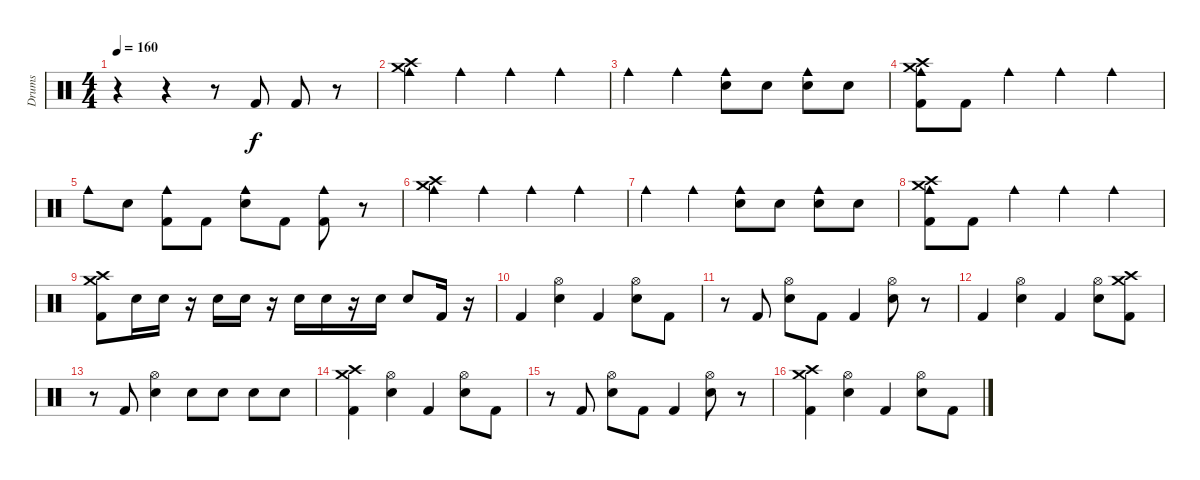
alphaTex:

\track ("Drums" "Drums") {instrument percussion}
\staff {score}
\articulation defaults
\ts (4 4)
\tempo 160
\clef neutral
\ks c
r.4{dy f} r.4 r.8 "Kick (hit) 2".8 "Kick (hit) 2".8 r.8 |
("Cowbell medium (hit)" "Crash high (hit)" "Crash medium (hit)").4 "Cowbell medium (hit)".4 "Cowbell medium (hit)".4 "Cowbell medium (hit)".4 |
"Cowbell medium (hit)".4 "Cowbell medium (hit)".4 ("Cowbell medium (hit)" "Snare (hit) 2").8 "Snare (hit) 2".8 ("Cowbell medium (hit)" "Snare (hit) 2").8 "Snare (hit) 2".8 |
("Cowbell medium (hit)" "Crash high (hit)" "Crash medium (hit)" "Kick (hit) 2").8 "Kick (hit) 2".8 "Cowbell medium (hit)".4 "Cowbell medium (hit)".4 "Cowbell medium (hit)".4 |
"Cowbell medium (hit)".8 "Snare (hit) 2".8 ("Cowbell medium (hit)" "Kick (hit) 2").8 "Kick (hit) 2".8 ("Cowbell medium (hit)" "Snare (hit) 2").8 "Kick (hit) 2".8 ("Cowbell medium (hit)" "Kick (hit) 2").8 r.8 |
("Cowbell medium (hit)" "Crash high (hit)" "Crash medium (hit)").4 "Cowbell medium (hit)".4 "Cowbell medium (hit)".4 "Cowbell medium (hit)".4 |
"Cowbell medium (hit)".4 "Cowbell medium (hit)".4 ("Cowbell medium (hit)" "Snare (hit) 2").8 "Snare (hit) 2".8 ("Cowbell medium (hit)" "Snare (hit) 2").8 "Snare (hit) 2".8 |
("Cowbell medium (hit)" "Crash high (hit)" "Crash medium (hit)" "Kick (hit) 2").8 "Kick (hit) 2".8 "Cowbell medium (hit)".4 "Cowbell medium (hit)".4 "Cowbell medium (hit)".4 |
("Crash medium (hit)" "Crash high (hit)" "Kick (hit) 2").8 "Snare (hit) 2".16 "Snare (hit) 2".16 r.16 "Snare (hit) 2".16 "Snare (hit) 2".16 r.16 "Snare (hit) 2".16 "Snare (hit) 2".16 r.16 "Snare (hit) 2".16 "Snare (hit) 2".8 "Kick (hit) 2".16 r.16 |
"Kick (hit) 2".4 ("Hi-Hat (open)" "Snare (hit) 2").4 "Kick (hit) 2".4 ("Hi-Hat (open)" "Snare (hit) 2").8 "Kick (hit) 2".8 |
r.8 "Kick (hit) 2".8 ("Hi-Hat (open)" "Snare (hit) 2").8 "Kick (hit) 2".8 "Kick (hit) 2".4 ("Hi-Hat (open)" "Snare (hit) 2").8 r.8 |
"Kick (hit) 2".4 ("Hi-Hat (open)" "Snare (hit) 2").4 "Kick (hit) 2".4 ("Hi-Hat (open)" "Snare (hit) 2").8 ("Crash medium (hit)" "Crash high (hit)" "Kick (hit) 2").8 |
r.8 "Kick (hit) 2".8 ("Hi-Hat (open)" "Snare (hit) 2").4 "Snare (hit) 2".8 "Snare (hit) 2".8 "Snare (hit) 2".8 "Snare (hit) 2".8 |
("Crash medium (hit)" "Crash high (hit)" "Kick (hit) 2").4 ("Hi-Hat (open)" "Snare (hit) 2").4 "Kick (hit) 2".4 ("Hi-Hat (open)" "Snare (hit) 2").8 "Kick (hit) 2".8 |
r.8 "Kick (hit) 2".8 ("Hi-Hat (open)" "Snare (hit) 2").8 "Kick (hit) 2".8 "Kick (hit) 2".4 ("Hi-Hat (open)" "Snare (hit) 2").8 r.8 |
("Crash medium (hit)" "Crash high (hit)" "Kick (hit) 2").4 ("Hi-Hat (open)" "Snare (hit) 2").4 "Kick (hit) 2".4 ("Hi-Hat (open)" "Snare (hit) 2").8 "Kick (hit) 2".8
